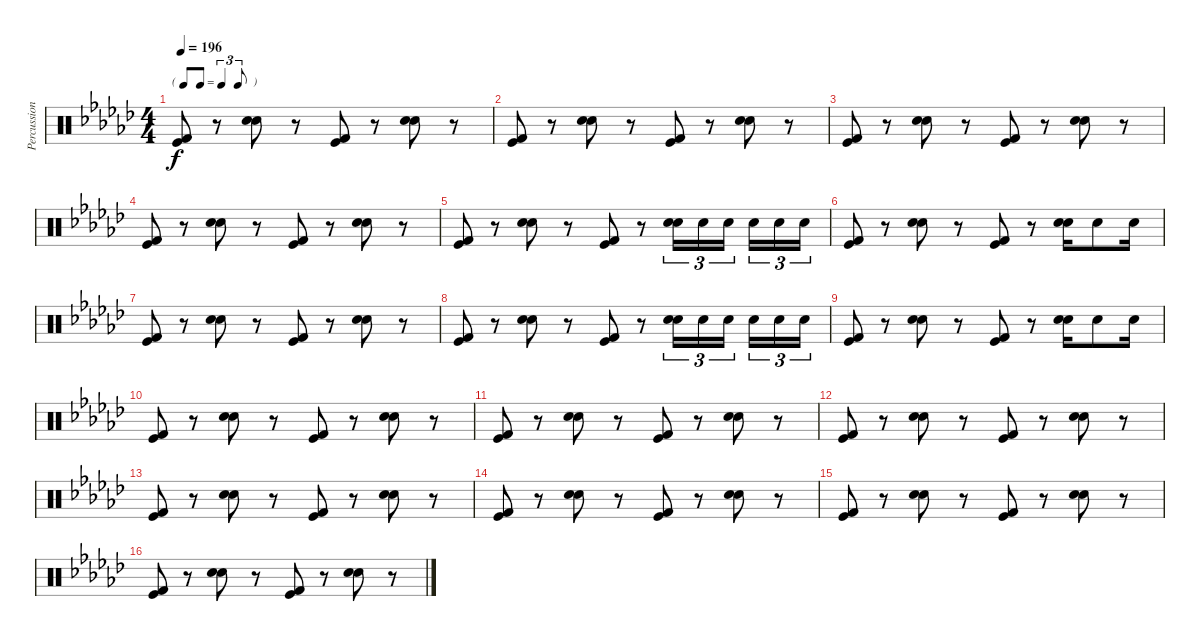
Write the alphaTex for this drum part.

\track ("Percussions" "Percussion") {instrument percussion}
\staff {score}
\articulation defaults
\ts (4 4)
\tf triplet8th
\tempo 196
\clef neutral
\ks gb
("Kick (hit) 2" "Kick (hit)").8{dy f} r.8 ("Snare (hit) 2" "Electric Snare (hit)").8 r.8 ("Kick (hit) 2" "Kick (hit)").8 r.8 ("Snare (hit) 2" "Electric Snare (hit)").8 r.8 |
("Kick (hit) 2" "Kick (hit)").8 r.8 ("Snare (hit) 2" "Electric Snare (hit)").8 r.8 ("Kick (hit) 2" "Kick (hit)").8 r.8 ("Snare (hit) 2" "Electric Snare (hit)").8 r.8 |
("Kick (hit) 2" "Kick (hit)").8 r.8 ("Snare (hit) 2" "Electric Snare (hit)").8 r.8 ("Kick (hit) 2" "Kick (hit)").8 r.8 ("Snare (hit) 2" "Electric Snare (hit)").8 r.8 |
("Kick (hit) 2" "Kick (hit)").8 r.8 ("Snare (hit) 2" "Electric Snare (hit)").8 r.8 ("Kick (hit) 2" "Kick (hit)").8 r.8 ("Snare (hit) 2" "Electric Snare (hit)").8 r.8 |
("Kick (hit) 2" "Kick (hit)").8 r.8 ("Snare (hit) 2" "Electric Snare (hit)").8 r.8 ("Kick (hit) 2" "Kick (hit)").8 r.8 ("Hand Clap (hit)" "Electric Snare (hit)").16{tu (3 2)} "Hand Clap (hit)".16{tu (3 2)} "Hand Clap (hit)".16{tu (3 2) beam splitsecondary} "Hand Clap (hit)".16{tu (3 2)} "Hand Clap (hit)".16{tu (3 2)} "Hand Clap (hit)".16{tu (3 2)} |
("Kick (hit) 2" "Kick (hit)").8 r.8 ("Snare (hit) 2" "Electric Snare (hit)").8 r.8 ("Kick (hit) 2" "Kick (hit)").8 r.8 ("Snare (hit) 2" "Electric Snare (hit)").16 "Hand Clap (hit)".8 "Hand Clap (hit)".16 |
("Kick (hit) 2" "Kick (hit)").8 r.8 ("Snare (hit) 2" "Electric Snare (hit)").8 r.8 ("Kick (hit) 2" "Kick (hit)").8 r.8 ("Snare (hit) 2" "Electric Snare (hit)").8 r.8 |
("Kick (hit) 2" "Kick (hit)").8 r.8 ("Snare (hit) 2" "Electric Snare (hit)").8 r.8 ("Kick (hit) 2" "Kick (hit)").8 r.8 ("Hand Clap (hit)" "Electric Snare (hit)").16{tu (3 2)} "Hand Clap (hit)".16{tu (3 2)} "Hand Clap (hit)".16{tu (3 2) beam splitsecondary} "Hand Clap (hit)".16{tu (3 2)} "Hand Clap (hit)".16{tu (3 2)} "Hand Clap (hit)".16{tu (3 2)} |
("Kick (hit) 2" "Kick (hit)").8 r.8 ("Snare (hit) 2" "Electric Snare (hit)").8 r.8 ("Kick (hit) 2" "Kick (hit)").8 r.8 ("Snare (hit) 2" "Electric Snare (hit)").16 "Hand Clap (hit)".8 "Hand Clap (hit)".16 |
("Kick (hit) 2" "Kick (hit)").8 r.8 ("Snare (hit) 2" "Electric Snare (hit)").8 r.8 ("Kick (hit) 2" "Kick (hit)").8 r.8 ("Snare (hit) 2" "Electric Snare (hit)").8 r.8 |
("Kick (hit) 2" "Kick (hit)").8 r.8 ("Snare (hit) 2" "Electric Snare (hit)").8 r.8 ("Kick (hit) 2" "Kick (hit)").8 r.8 ("Snare (hit) 2" "Electric Snare (hit)").8 r.8 |
("Kick (hit) 2" "Kick (hit)").8 r.8 ("Snare (hit) 2" "Electric Snare (hit)").8 r.8 ("Kick (hit) 2" "Kick (hit)").8 r.8 ("Snare (hit) 2" "Electric Snare (hit)").8 r.8 |
("Kick (hit) 2" "Kick (hit)").8 r.8 ("Snare (hit) 2" "Electric Snare (hit)").8 r.8 ("Kick (hit) 2" "Kick (hit)").8 r.8 ("Snare (hit) 2" "Electric Snare (hit)").8 r.8 |
("Kick (hit) 2" "Kick (hit)").8 r.8 ("Snare (hit) 2" "Electric Snare (hit)").8 r.8 ("Kick (hit) 2" "Kick (hit)").8 r.8 ("Snare (hit) 2" "Electric Snare (hit)").8 r.8 |
("Kick (hit) 2" "Kick (hit)").8 r.8 ("Snare (hit) 2" "Electric Snare (hit)").8 r.8 ("Kick (hit) 2" "Kick (hit)").8 r.8 ("Snare (hit) 2" "Electric Snare (hit)").8 r.8 |
("Kick (hit) 2" "Kick (hit)").8 r.8 ("Snare (hit) 2" "Electric Snare (hit)").8 r.8 ("Kick (hit) 2" "Kick (hit)").8 r.8 ("Snare (hit) 2" "Electric Snare (hit)").8 r.8
